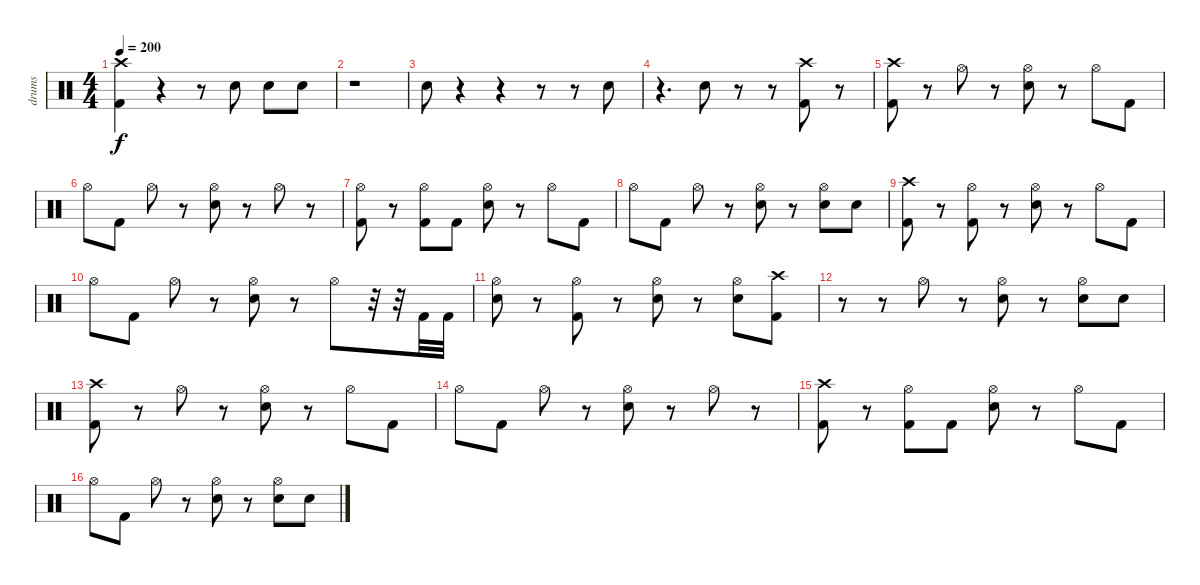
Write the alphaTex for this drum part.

\track ("drums" "drums") {instrument percussion}
\staff {score}
\articulation defaults
\ts (4 4)
\tempo 200
\clef neutral
\ks c
("Crash high (hit)" "Kick (hit) 2").4{dy f} r.4 r.8 "Snare (hit) 2".8 "Snare (hit) 2".8 "Snare (hit) 2".8 |
r.1 |
"Snare (hit) 2".8 r.4 r.4 r.8 r.8 "Snare (hit) 2".8 |
r.4{d} "Snare (hit) 2".8 r.8 r.8 ("Crash high (hit)" "Kick (hit) 2").8 r.8 |
("Crash high (hit)" "Kick (hit) 2").8 r.8 "Hi-Hat (open)".8 r.8 ("Hi-Hat (open)" "Snare (hit) 2").8 r.8 "Hi-Hat (open)".8 "Kick (hit) 2".8 |
"Hi-Hat (open)".8 "Kick (hit) 2".8 "Hi-Hat (open)".8 r.8 ("Hi-Hat (open)" "Snare (hit) 2").8 r.8 "Hi-Hat (open)".8 r.8 |
("Hi-Hat (open)" "Kick (hit) 2").8 r.8 ("Hi-Hat (open)" "Kick (hit) 2").8 "Kick (hit) 2".8 ("Hi-Hat (open)" "Snare (hit) 2").8 r.8 "Hi-Hat (open)".8 "Kick (hit) 2".8 |
"Hi-Hat (open)".8 "Kick (hit) 2".8 "Hi-Hat (open)".8 r.8 ("Hi-Hat (open)" "Snare (hit) 2").8 r.8 ("Hi-Hat (open)" "Snare (hit) 2").8 "Snare (hit) 2".8 |
("Crash high (hit)" "Kick (hit) 2").8 r.8 ("Hi-Hat (open)" "Kick (hit) 2").8 r.8 ("Hi-Hat (open)" "Snare (hit) 2").8 r.8 "Hi-Hat (open)".8 "Kick (hit) 2".8 |
"Hi-Hat (open)".8 "Kick (hit) 2".8 "Hi-Hat (open)".8 r.8 ("Hi-Hat (open)" "Snare (hit) 2").8 r.8 "Hi-Hat (open)".8 r.32 r.32 "Kick (hit) 2".32 "Kick (hit) 2".32 |
("Hi-Hat (open)" "Snare (hit) 2").8 r.8 ("Hi-Hat (open)" "Kick (hit) 2").8 r.8 ("Hi-Hat (open)" "Snare (hit) 2").8 r.8 ("Hi-Hat (open)" "Snare (hit) 2").8 ("Crash high (hit)" "Kick (hit) 2").8 |
r.8 r.8 "Hi-Hat (open)".8 r.8 ("Hi-Hat (open)" "Snare (hit) 2").8 r.8 ("Hi-Hat (open)" "Snare (hit) 2").8 "Snare (hit) 2".8 |
("Crash high (hit)" "Kick (hit) 2").8 r.8 "Hi-Hat (open)".8 r.8 ("Hi-Hat (open)" "Snare (hit) 2").8 r.8 "Hi-Hat (open)".8 "Kick (hit) 2".8 |
"Hi-Hat (open)".8 "Kick (hit) 2".8 "Hi-Hat (open)".8 r.8 ("Hi-Hat (open)" "Snare (hit) 2").8 r.8 "Hi-Hat (open)".8 r.8 |
("Crash high (hit)" "Kick (hit) 2").8 r.8 ("Hi-Hat (open)" "Kick (hit) 2").8 "Kick (hit) 2".8 ("Hi-Hat (open)" "Snare (hit) 2").8 r.8 "Hi-Hat (open)".8 "Kick (hit) 2".8 |
"Hi-Hat (open)".8 "Kick (hit) 2".8 "Hi-Hat (open)".8 r.8 ("Hi-Hat (open)" "Snare (hit) 2").8 r.8 ("Hi-Hat (open)" "Snare (hit) 2").8 "Snare (hit) 2".8
